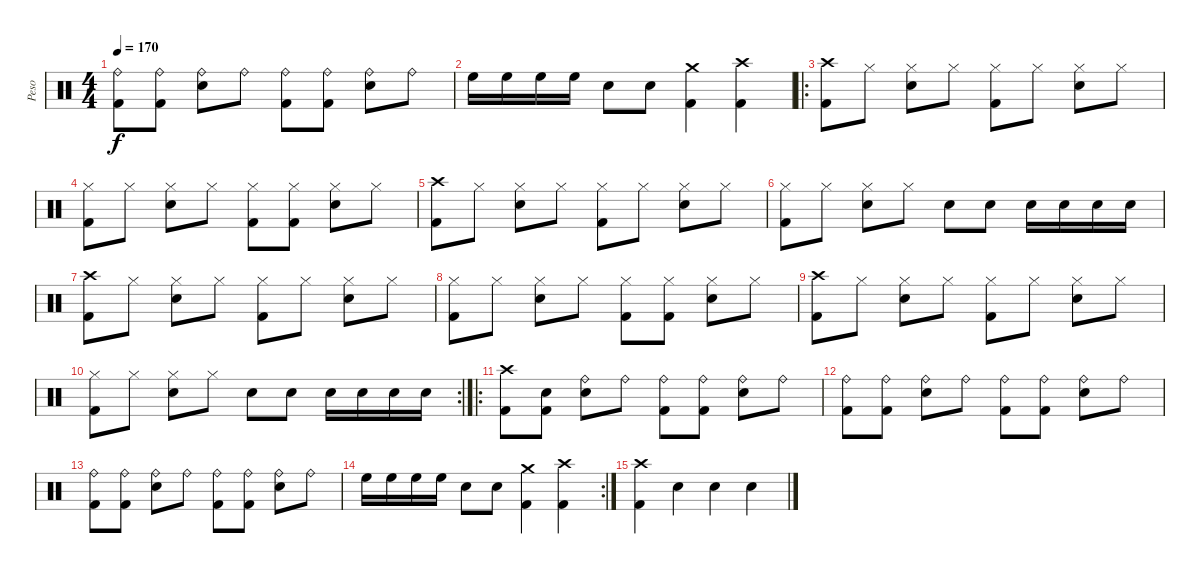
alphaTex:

\track ("Peso" "Peso") {instrument percussion}
\staff {score}
\articulation defaults
\ts (4 4)
\tempo 170
\clef neutral
\ks c
("Ride (bell)" "Kick (hit) 2").8{dy f} ("Ride (bell)"{x} "Kick (hit) 2").8 ("Ride (bell)" "Snare (hit) 2").8 "Ride (bell)"{x}.8 ("Ride (bell)" "Kick (hit) 2").8 ("Ride (bell)"{x} "Kick (hit) 2").8 ("Ride (bell)" "Snare (hit) 2").8 "Ride (bell)"{x}.8 |
"High Floor Tom (hit)"{x}.16 "High Floor Tom (hit)".16 "High Floor Tom (hit)".16 "High Floor Tom (hit)"{x}.16 "Snare (hit) 2".8 "Snare (hit) 2".8 ("Crash medium (hit)" "Kick (hit) 2").4 ("Crash high (hit)" "Kick (hit) 2").4 |
\ro
("Crash high (hit)" "Kick (hit) 2").8 "Hi-Hat (closed)".8 ("Hi-Hat (closed)" "Snare (hit) 2").8 "Hi-Hat (closed)".8 ("Hi-Hat (closed)" "Kick (hit) 2").8 "Hi-Hat (closed)".8 ("Hi-Hat (closed)" "Snare (hit) 2").8 "Hi-Hat (closed)".8 |
("Hi-Hat (closed)" "Kick (hit) 2").8 "Hi-Hat (closed)".8 ("Hi-Hat (closed)" "Snare (hit) 2").8 "Hi-Hat (closed)".8 ("Hi-Hat (closed)" "Kick (hit) 2").8 ("Hi-Hat (closed)" "Kick (hit) 2").8 ("Hi-Hat (closed)" "Snare (hit) 2").8 "Hi-Hat (closed)".8 |
("Crash high (hit)" "Kick (hit) 2").8 "Hi-Hat (closed)".8 ("Hi-Hat (closed)" "Snare (hit) 2").8 "Hi-Hat (closed)".8 ("Hi-Hat (closed)" "Kick (hit) 2").8 "Hi-Hat (closed)".8 ("Hi-Hat (closed)" "Snare (hit) 2").8 "Hi-Hat (closed)".8 |
("Hi-Hat (closed)" "Kick (hit) 2").8 "Hi-Hat (closed)".8 ("Hi-Hat (closed)" "Snare (hit) 2").8 "Hi-Hat (closed)".8 "Snare (hit) 2".8 "Snare (hit) 2".8 "Snare (hit) 2".16 "Snare (hit) 2".16 "Snare (hit) 2".16 "Snare (hit) 2".16 |
("Crash high (hit)" "Kick (hit) 2").8 "Hi-Hat (closed)".8 ("Hi-Hat (closed)" "Snare (hit) 2").8 "Hi-Hat (closed)".8 ("Hi-Hat (closed)" "Kick (hit) 2").8 "Hi-Hat (closed)".8 ("Hi-Hat (closed)" "Snare (hit) 2").8 "Hi-Hat (closed)".8 |
("Hi-Hat (closed)" "Kick (hit) 2").8 "Hi-Hat (closed)".8 ("Hi-Hat (closed)" "Snare (hit) 2").8 "Hi-Hat (closed)".8 ("Hi-Hat (closed)" "Kick (hit) 2").8 ("Hi-Hat (closed)" "Kick (hit) 2").8 ("Hi-Hat (closed)" "Snare (hit) 2").8 "Hi-Hat (closed)".8 |
("Crash high (hit)" "Kick (hit) 2").8 "Hi-Hat (closed)".8 ("Hi-Hat (closed)" "Snare (hit) 2").8 "Hi-Hat (closed)".8 ("Hi-Hat (closed)" "Kick (hit) 2").8 "Hi-Hat (closed)".8 ("Hi-Hat (closed)" "Snare (hit) 2").8 "Hi-Hat (closed)".8 |
\rc 2
("Hi-Hat (closed)" "Kick (hit) 2").8 "Hi-Hat (closed)".8 ("Hi-Hat (closed)" "Snare (hit) 2").8 "Hi-Hat (closed)".8 "Snare (hit) 2".8 "Snare (hit) 2".8 "Snare (hit) 2".16 "Snare (hit) 2".16 "Snare (hit) 2".16 "Snare (hit) 2".16 |
\ro
("Crash high (hit)" "Kick (hit) 2").8 ("Snare (hit)"{x} "Kick (hit) 2").8 ("Ride (bell)" "Snare (hit) 2").8 "Ride (bell)"{x}.8 ("Ride (bell)" "Kick (hit) 2").8 ("Ride (bell)"{x} "Kick (hit) 2").8 ("Ride (bell)" "Snare (hit) 2").8 "Ride (bell)"{x}.8 |
("Ride (bell)" "Kick (hit) 2").8 ("Ride (bell)"{x} "Kick (hit) 2").8 ("Ride (bell)" "Snare (hit) 2").8 "Ride (bell)"{x}.8 ("Ride (bell)" "Kick (hit) 2").8 ("Ride (bell)"{x} "Kick (hit) 2").8 ("Ride (bell)" "Snare (hit) 2").8 "Ride (bell)"{x}.8 |
("Ride (bell)" "Kick (hit) 2").8 ("Ride (bell)"{x} "Kick (hit) 2").8 ("Ride (bell)" "Snare (hit) 2").8 "Ride (bell)"{x}.8 ("Ride (bell)" "Kick (hit) 2").8 ("Ride (bell)"{x} "Kick (hit) 2").8 ("Ride (bell)" "Snare (hit) 2").8 "Ride (bell)"{x}.8 |
\rc 2 "High Floor Tom (hit)"{x}.16 "High Floor Tom (hit)".16 "High Floor Tom (hit)".16 "High Floor Tom (hit)"{x}.16 "Snare (hit) 2".8 "Snare (hit) 2".8
("Crash medium (hit)" "Kick (hit) 2").4 ("Crash high (hit)" "Kick (hit) 2").4 |
("Crash high (hit)" "Kick (hit) 2").4 "Snare (hit)"{x}.4 "Snare (hit)"{x}.4 "Snare (hit)"{x}.4
